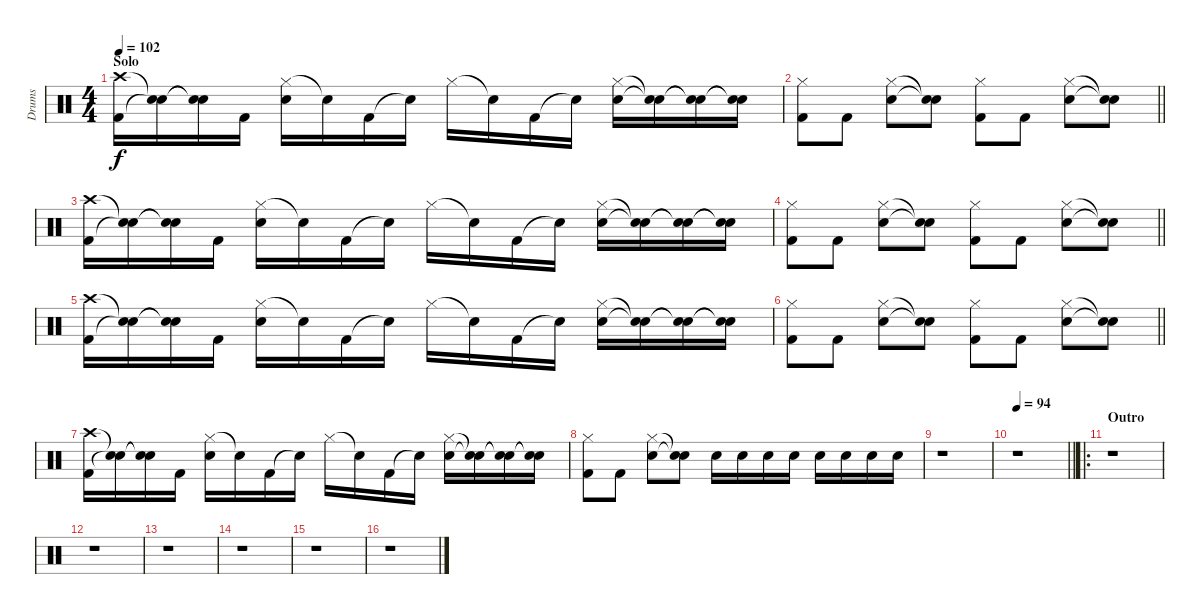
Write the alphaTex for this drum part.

\track ("Drums" "Drums") {instrument percussion}
\staff {score}
\articulation defaults
\ts (4 4)
\section ("" "Solo")
\tempo 102
\clef neutral
\ks c
("Crash high (hit)" "Kick (hit) 2").16{dy f} ("Snare (hit)"{t} "Snare (hit)"{t}).16 ("Snare (hit)"{t} "Snare (hit)"{t}).16 "Kick (hit) 2".16 ("Hi-Hat (closed)" "Snare (hit) 2").16 "Snare (hit)"{t}.16 "Kick (hit) 2".16 "Snare (hit)"{t}.16 "Hi-Hat (closed)".16 "Snare (hit)"{t}.16 "Kick (hit) 2".16 "Snare (hit)"{t}.16 ("Hi-Hat (closed)" "Snare (hit) 2").16 ("Snare (hit)"{t} "Snare (hit)"{t}).16 ("Snare (hit)"{t} "Snare (hit)"{t}).16 ("Snare (hit)"{t} "Snare (hit)"{t}).16 |
\barLineRight lightlight
("Hi-Hat (closed)" "Kick (hit) 2").8 "Kick (hit) 2".8 ("Hi-Hat (closed)" "Snare (hit) 2").8 ("Snare (hit)"{t} "Snare (hit)"{t}).8 ("Hi-Hat (closed)" "Kick (hit) 2").8 "Kick (hit) 2".8 ("Hi-Hat (closed)" "Snare (hit) 2").8 ("Snare (hit)"{t} "Snare (hit)"{t}).8 |
("Crash high (hit)" "Kick (hit) 2").16 ("Snare (hit)"{t} "Snare (hit)"{t}).16 ("Snare (hit)"{t} "Snare (hit)"{t}).16 "Kick (hit) 2".16 ("Hi-Hat (closed)" "Snare (hit) 2").16 "Snare (hit)"{t}.16 "Kick (hit) 2".16 "Snare (hit)"{t}.16 "Hi-Hat (closed)".16 "Snare (hit)"{t}.16 "Kick (hit) 2".16 "Snare (hit)"{t}.16 ("Hi-Hat (closed)" "Snare (hit) 2").16 ("Snare (hit)"{t} "Snare (hit)"{t}).16 ("Snare (hit)"{t} "Snare (hit)"{t}).16 ("Snare (hit)"{t} "Snare (hit)"{t}).16 |
\barLineRight lightlight
("Hi-Hat (closed)" "Kick (hit) 2").8 "Kick (hit) 2".8 ("Hi-Hat (closed)" "Snare (hit) 2").8 ("Snare (hit)"{t} "Snare (hit)"{t}).8 ("Hi-Hat (closed)" "Kick (hit) 2").8 "Kick (hit) 2".8 ("Hi-Hat (closed)" "Snare (hit) 2").8 ("Snare (hit)"{t} "Snare (hit)"{t}).8 |
("Crash high (hit)" "Kick (hit) 2").16 ("Snare (hit)"{t} "Snare (hit)"{t}).16 ("Snare (hit)"{t} "Snare (hit)"{t}).16 "Kick (hit) 2".16 ("Hi-Hat (closed)" "Snare (hit) 2").16 "Snare (hit)"{t}.16 "Kick (hit) 2".16 "Snare (hit)"{t}.16 "Hi-Hat (closed)".16 "Snare (hit)"{t}.16 "Kick (hit) 2".16 "Snare (hit)"{t}.16 ("Hi-Hat (closed)" "Snare (hit) 2").16 ("Snare (hit)"{t} "Snare (hit)"{t}).16 ("Snare (hit)"{t} "Snare (hit)"{t}).16 ("Snare (hit)"{t} "Snare (hit)"{t}).16 |
\barLineRight lightlight
("Hi-Hat (closed)" "Kick (hit) 2").8 "Kick (hit) 2".8 ("Hi-Hat (closed)" "Snare (hit) 2").8 ("Snare (hit)"{t} "Snare (hit)"{t}).8 ("Hi-Hat (closed)" "Kick (hit) 2").8 "Kick (hit) 2".8 ("Hi-Hat (closed)" "Snare (hit) 2").8 ("Snare (hit)"{t} "Snare (hit)"{t}).8 |
("Crash high (hit)" "Kick (hit) 2").16 ("Snare (hit)"{t} "Snare (hit)"{t}).16 ("Snare (hit)"{t} "Snare (hit)"{t}).16 "Kick (hit) 2".16 ("Hi-Hat (closed)" "Snare (hit) 2").16 "Snare (hit)"{t}.16 "Kick (hit) 2".16 "Snare (hit)"{t}.16 "Hi-Hat (closed)".16 "Snare (hit)"{t}.16 "Kick (hit) 2".16 "Snare (hit)"{t}.16 ("Hi-Hat (closed)" "Snare (hit) 2").16 ("Snare (hit)"{t} "Snare (hit)"{t}).16 ("Snare (hit)"{t} "Snare (hit)"{t}).16 ("Snare (hit)"{t} "Snare (hit)"{t}).16 |
("Hi-Hat (closed)" "Kick (hit) 2").8 "Kick (hit) 2".8 ("Hi-Hat (closed)" "Snare (hit) 2").8 ("Snare (hit)"{t} "Snare (hit)"{t}).8 "Snare (hit) 2".16 "Snare (hit) 2".16 "Snare (hit) 2".16 "Snare (hit) 2".16 "Snare (hit) 2".16 "Snare (hit) 2".16 "Snare (hit) 2".16 "Snare (hit) 2".16 |
r.1 |
\tempo 94
\barLineRight lightlight
r.1 |
\ro
\section ("" "Outro")
r.1 |
r.1 |
r.1 |
r.1 |
r.1 |
r.1
